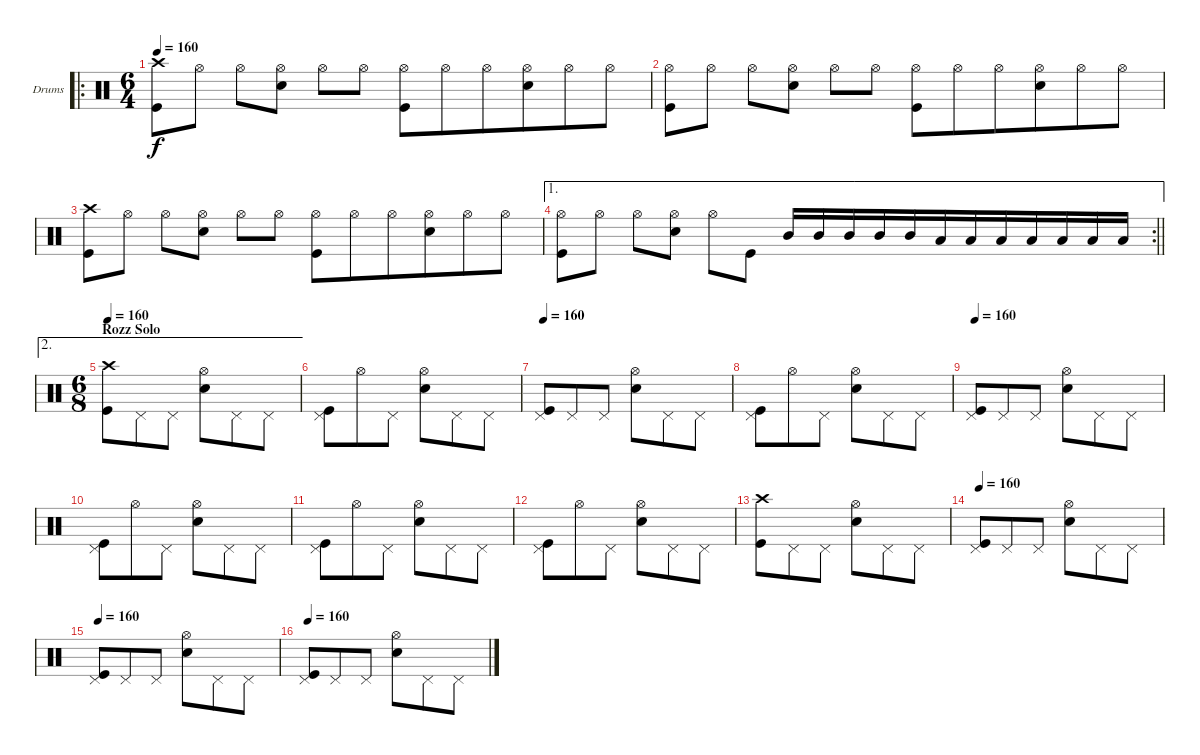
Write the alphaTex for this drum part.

\bracketExtendMode groupsimilarinstruments
\firstSystemTrackNameOrientation horizontal
\otherSystemsTrackNameOrientation horizontal
\track ("Drumkit" "Drums") {instrument percussion}
\staff {score}
\articulation defaults
\ro
\ts (6 4)
\beaming (8 2 2 2 6)
\tempo 160
\clef neutral
\ks c
("Crash high (hit)" "Kick (hit)").8{dy f} "Hi-Hat (open)".8 "Hi-Hat (open)".8 ("Hi-Hat (open)" "Snare (hit) 2").8 "Hi-Hat (open)".8 "Hi-Hat (open)".8 ("Hi-Hat (open)" "Kick (hit)").8 "Hi-Hat (open)".8 "Hi-Hat (open)".8 ("Hi-Hat (open)" "Snare (hit) 2").8 "Hi-Hat (open)".8 "Hi-Hat (open)".8 |
("Hi-Hat (open)" "Kick (hit)").8 "Hi-Hat (open)".8 "Hi-Hat (open)".8 ("Hi-Hat (open)" "Snare (hit) 2").8 "Hi-Hat (open)".8 "Hi-Hat (open)".8 ("Hi-Hat (open)" "Kick (hit)").8 "Hi-Hat (open)".8 "Hi-Hat (open)".8 ("Hi-Hat (open)" "Snare (hit) 2").8 "Hi-Hat (open)".8 "Hi-Hat (open)".8 |
("Crash high (hit)" "Kick (hit)").8 "Hi-Hat (open)".8 "Hi-Hat (open)".8 ("Hi-Hat (open)" "Snare (hit) 2").8 "Hi-Hat (open)".8 "Hi-Hat (open)".8 ("Hi-Hat (open)" "Kick (hit)").8 "Hi-Hat (open)".8 "Hi-Hat (open)".8 ("Hi-Hat (open)" "Snare (hit) 2").8 "Hi-Hat (open)".8 "Hi-Hat (open)".8 |
\ae 1
\rc 2
\barLineRight lightlight
("Hi-Hat (open)" "Kick (hit)").8 "Hi-Hat (open)".8 "Hi-Hat (open)".8 ("Hi-Hat (open)" "Snare (hit) 2").8 "Hi-Hat (open)".8 "Kick (hit)".8 "Mid Tom (hit)".16 "Mid Tom (hit)".16 "Mid Tom (hit)".16 "Mid Tom (hit)".16 "Mid Tom (hit)".16 "Low Tom (hit)".16 "Low Tom (hit)".16 "Low Tom (hit)".16 "Low Tom (hit)".16 "Low Tom (hit)".16 "Low Tom (hit)".16 "Low Tom (hit)".16 |
\ae 2
\ts (6 8)
\beaming (8 3 3)
\section ("" "Rozz Solo")
\tempo 160
("Crash high (hit)" "Kick (hit)").8 "Pedal Hi-Hat (hit)".8 "Pedal Hi-Hat (hit)".8 ("Hi-Hat (open)" "Snare (hit) 2").8 "Pedal Hi-Hat (hit)".8 "Pedal Hi-Hat (hit)".8 |
("Pedal Hi-Hat (hit)" "Kick (hit)").8 "Hi-Hat (open)".8 "Pedal Hi-Hat (hit)".8 ("Hi-Hat (open)" "Snare (hit) 2").8 "Pedal Hi-Hat (hit)".8 "Pedal Hi-Hat (hit)".8 |
\tempo 160
("Pedal Hi-Hat (hit)" "Kick (hit)").8 "Pedal Hi-Hat (hit)".8 "Pedal Hi-Hat (hit)".8 ("Hi-Hat (open)" "Snare (hit) 2").8 "Pedal Hi-Hat (hit)".8 "Pedal Hi-Hat (hit)".8 |
("Pedal Hi-Hat (hit)" "Kick (hit)").8 "Hi-Hat (open)".8 "Pedal Hi-Hat (hit)".8 ("Hi-Hat (open)" "Snare (hit) 2").8 "Pedal Hi-Hat (hit)".8 "Pedal Hi-Hat (hit)".8 |
\tempo 160
("Pedal Hi-Hat (hit)" "Kick (hit)").8 "Pedal Hi-Hat (hit)".8 "Pedal Hi-Hat (hit)".8 ("Hi-Hat (open)" "Snare (hit) 2").8 "Pedal Hi-Hat (hit)".8 "Pedal Hi-Hat (hit)".8 |
("Pedal Hi-Hat (hit)" "Kick (hit)").8 "Hi-Hat (open)".8 "Pedal Hi-Hat (hit)".8 ("Hi-Hat (open)" "Snare (hit) 2").8 "Pedal Hi-Hat (hit)".8 "Pedal Hi-Hat (hit)".8 |
("Pedal Hi-Hat (hit)" "Kick (hit)").8 "Hi-Hat (open)".8 "Pedal Hi-Hat (hit)".8 ("Hi-Hat (open)" "Snare (hit) 2").8 "Pedal Hi-Hat (hit)".8 "Pedal Hi-Hat (hit)".8 |
("Pedal Hi-Hat (hit)" "Kick (hit)").8 "Hi-Hat (open)".8 "Pedal Hi-Hat (hit)".8 ("Hi-Hat (open)" "Snare (hit) 2").8 "Pedal Hi-Hat (hit)".8 "Pedal Hi-Hat (hit)".8 |
("Crash high (hit)" "Kick (hit)").8 "Pedal Hi-Hat (hit)".8 "Pedal Hi-Hat (hit)".8 ("Hi-Hat (open)" "Snare (hit) 2").8 "Pedal Hi-Hat (hit)".8 "Pedal Hi-Hat (hit)".8 |
\tempo 160
("Pedal Hi-Hat (hit)" "Kick (hit)").8 "Pedal Hi-Hat (hit)".8 "Pedal Hi-Hat (hit)".8 ("Hi-Hat (open)" "Snare (hit) 2").8 "Pedal Hi-Hat (hit)".8 "Pedal Hi-Hat (hit)".8 |
\tempo 160
("Pedal Hi-Hat (hit)" "Kick (hit)").8 "Pedal Hi-Hat (hit)".8 "Pedal Hi-Hat (hit)".8 ("Hi-Hat (open)" "Snare (hit) 2").8 "Pedal Hi-Hat (hit)".8 "Pedal Hi-Hat (hit)".8 |
\tempo 160
("Pedal Hi-Hat (hit)" "Kick (hit)").8 "Pedal Hi-Hat (hit)".8 "Pedal Hi-Hat (hit)".8 ("Hi-Hat (open)" "Snare (hit) 2").8 "Pedal Hi-Hat (hit)".8 "Pedal Hi-Hat (hit)".8
